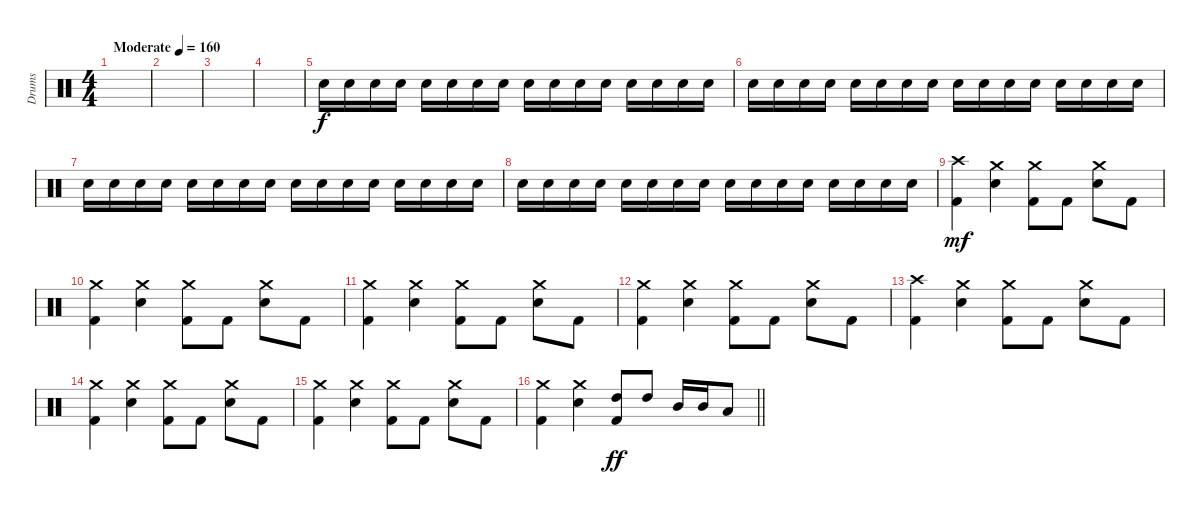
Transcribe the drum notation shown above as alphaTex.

\track ("Drums" "Drums") {instrument percussion}
\staff {score}
\articulation defaults
\ts (4 4)
\tempo (160 "Moderate")
\clef neutral
\ks c
|
|
|
|
"Electric Snare (hit)".16 "Electric Snare (hit)".16 "Electric Snare (hit)".16 "Electric Snare (hit)".16 "Electric Snare (hit)".16 "Electric Snare (hit)".16 "Electric Snare (hit)".16 "Electric Snare (hit)".16 "Electric Snare (hit)".16 "Electric Snare (hit)".16 "Electric Snare (hit)".16 "Electric Snare (hit)".16 "Electric Snare (hit)".16 "Electric Snare (hit)".16 "Electric Snare (hit)".16 "Electric Snare (hit)".16 |
"Electric Snare (hit)".16 "Electric Snare (hit)".16 "Electric Snare (hit)".16 "Electric Snare (hit)".16 "Electric Snare (hit)".16 "Electric Snare (hit)".16 "Electric Snare (hit)".16 "Electric Snare (hit)".16 "Electric Snare (hit)".16 "Electric Snare (hit)".16 "Electric Snare (hit)".16 "Electric Snare (hit)".16 "Electric Snare (hit)".16 "Electric Snare (hit)".16 "Electric Snare (hit)".16 "Electric Snare (hit)".16 |
"Electric Snare (hit)".16 "Electric Snare (hit)".16 "Electric Snare (hit)".16 "Electric Snare (hit)".16 "Electric Snare (hit)".16 "Electric Snare (hit)".16 "Electric Snare (hit)".16 "Electric Snare (hit)".16 "Electric Snare (hit)".16 "Electric Snare (hit)".16 "Electric Snare (hit)".16 "Electric Snare (hit)".16 "Electric Snare (hit)".16 "Electric Snare (hit)".16 "Electric Snare (hit)".16 "Electric Snare (hit)".16 |
"Electric Snare (hit)".16 "Electric Snare (hit)".16 "Electric Snare (hit)".16 "Electric Snare (hit)".16 "Electric Snare (hit)".16 "Electric Snare (hit)".16 "Electric Snare (hit)".16 "Electric Snare (hit)".16 "Electric Snare (hit)".16 "Electric Snare (hit)".16 "Electric Snare (hit)".16 "Electric Snare (hit)".16 "Electric Snare (hit)".16 "Electric Snare (hit)".16 "Electric Snare (hit)".16 "Electric Snare (hit)".16 |
("Crash high (hit)" "Kick (hit) 2").4{dy mf} ("Crash medium (hit)" "Electric Snare (hit)").4 ("Crash medium (hit)" "Kick (hit) 2").8 "Kick (hit) 2".8 ("Crash medium (hit)" "Electric Snare (hit)").8 "Kick (hit) 2".8 |
("Crash medium (hit)" "Kick (hit) 2").4 ("Crash medium (hit)" "Electric Snare (hit)").4 ("Crash medium (hit)" "Kick (hit) 2").8 "Kick (hit) 2".8 ("Crash medium (hit)" "Electric Snare (hit)").8 "Kick (hit) 2".8 |
("Crash medium (hit)" "Kick (hit) 2").4 ("Crash medium (hit)" "Electric Snare (hit)").4 ("Crash medium (hit)" "Kick (hit) 2").8 "Kick (hit) 2".8 ("Crash medium (hit)" "Electric Snare (hit)").8 "Kick (hit) 2".8 |
("Crash medium (hit)" "Kick (hit) 2").4 ("Crash medium (hit)" "Electric Snare (hit)").4 ("Crash medium (hit)" "Kick (hit) 2").8 "Kick (hit) 2".8 ("Crash medium (hit)" "Electric Snare (hit)").8 "Kick (hit) 2".8 |
("Crash high (hit)" "Kick (hit) 2").4 ("Crash medium (hit)" "Electric Snare (hit)").4 ("Crash medium (hit)" "Kick (hit) 2").8 "Kick (hit) 2".8 ("Crash medium (hit)" "Electric Snare (hit)").8 "Kick (hit) 2".8 |
("Crash medium (hit)" "Kick (hit) 2").4 ("Crash medium (hit)" "Electric Snare (hit)").4 ("Crash medium (hit)" "Kick (hit) 2").8 "Kick (hit) 2".8 ("Crash medium (hit)" "Electric Snare (hit)").8 "Kick (hit) 2".8 |
("Crash medium (hit)" "Kick (hit) 2").4 ("Crash medium (hit)" "Electric Snare (hit)").4 ("Crash medium (hit)" "Kick (hit) 2").8 "Kick (hit) 2".8 ("Crash medium (hit)" "Electric Snare (hit)").8 "Kick (hit) 2".8 |
\barLineRight lightlight
("Crash medium (hit)" "Kick (hit) 2").4 ("Crash medium (hit)" "Electric Snare (hit)").4 ("High Tom (hit)" "Kick (hit) 2").8{dy ff} "High Tom (hit)".8 "Mid Tom (hit)".16 "Mid Tom (hit)".16 "Low Tom (hit)".8
